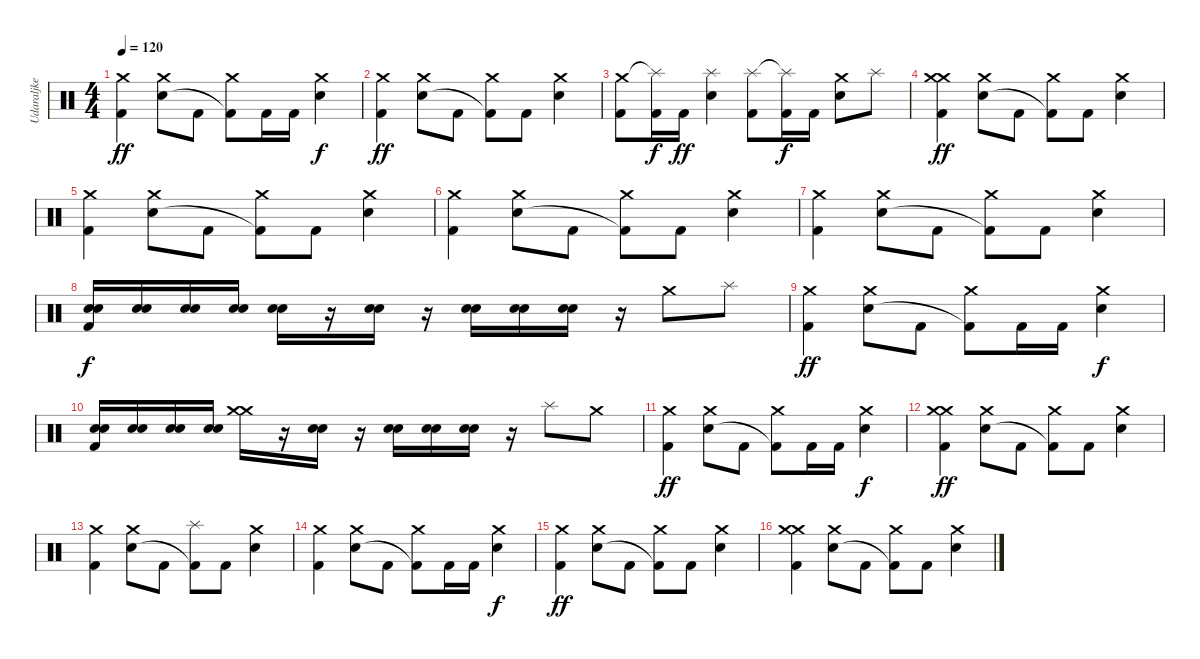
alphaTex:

\track ("Udaraljke" "Udaraljke") {instrument percussion}
\staff {score}
\articulation defaults
\ts (4 4)
\tempo 120
\clef neutral
\ks c
("Crash medium (hit)" "Kick (hit) 2").4{dy ff} ("Crash medium (hit)" "Electric Snare (hit)").8 "Kick (hit) 2".8 ("Crash medium (hit)" "Kick (hit) 2"{t}).8 "Kick (hit) 2".16 "Kick (hit) 2".16 ("Crash medium (hit)" "Electric Snare (hit)").4{dy f} |
("Crash medium (hit)" "Kick (hit) 2").4{dy ff} ("Crash medium (hit)" "Electric Snare (hit)").8 "Kick (hit) 2".8 ("Crash medium (hit)" "Kick (hit) 2"{t}).8 "Kick (hit) 2".8 ("Crash medium (hit)" "Electric Snare (hit)").4 |
("Crash medium (hit)" "Kick (hit) 2").8 ("Splash (hit)"{t} "Kick (hit) 2").16{dy f} "Kick (hit) 2".16{dy ff} ("Splash (hit)" "Electric Snare (hit)").4 ("Splash (hit)" "Kick (hit) 2").8 ("Splash (hit)"{t} "Kick (hit) 2").16{dy f} "Kick (hit) 2".16 ("Crash medium (hit)" "Electric Snare (hit)").8 "Splash (hit)".8 |
("Crash medium (hit)" "Crash medium (hit)" "Kick (hit) 2").4{dy ff} ("Crash medium (hit)" "Electric Snare (hit)").8 "Kick (hit) 2".8 ("Crash medium (hit)" "Kick (hit) 2"{t}).8 "Kick (hit) 2".8 ("Crash medium (hit)" "Electric Snare (hit)").4 |
("Crash medium (hit)" "Kick (hit) 2").4 ("Crash medium (hit)" "Electric Snare (hit)").8 "Kick (hit) 2".8 ("Crash medium (hit)" "Kick (hit) 2"{t}).8 "Kick (hit) 2".8 ("Crash medium (hit)" "Electric Snare (hit)").4 |
("Crash medium (hit)" "Kick (hit) 2").4 ("Crash medium (hit)" "Electric Snare (hit)").8 "Kick (hit) 2".8 ("Crash medium (hit)" "Kick (hit) 2"{t}).8 "Kick (hit) 2".8 ("Crash medium (hit)" "Electric Snare (hit)").4 |
("Crash medium (hit)" "Kick (hit) 2").4 ("Crash medium (hit)" "Electric Snare (hit)").8 "Kick (hit) 2".8 ("Crash medium (hit)" "Kick (hit) 2"{t}).8 "Kick (hit) 2".8 ("Crash medium (hit)" "Electric Snare (hit)").4 |
("Electric Snare (hit)" "Electric Snare (hit)" "Kick (hit) 2").16{dy f} ("Electric Snare (hit)" "Electric Snare (hit)").16 ("Electric Snare (hit)" "Electric Snare (hit)").16 ("Electric Snare (hit)" "Electric Snare (hit)").16 ("Electric Snare (hit)" "Electric Snare (hit)").16 r.16 ("Electric Snare (hit)" "Electric Snare (hit)").16 r.16 ("Electric Snare (hit)" "Electric Snare (hit)").16 ("Electric Snare (hit)" "Electric Snare (hit)").16 ("Electric Snare (hit)" "Electric Snare (hit)").16 r.16 "Crash medium (hit)".8 "Splash (hit)".8 |
("Crash medium (hit)" "Kick (hit) 2").4{dy ff} ("Crash medium (hit)" "Electric Snare (hit)").8 "Kick (hit) 2".8 ("Crash medium (hit)" "Kick (hit) 2"{t}).8 "Kick (hit) 2".16 "Kick (hit) 2".16 ("Crash medium (hit)" "Electric Snare (hit)").4{dy f} |
("Electric Snare (hit)" "Electric Snare (hit)" "Kick (hit) 2").16 ("Electric Snare (hit)" "Electric Snare (hit)").16 ("Electric Snare (hit)" "Electric Snare (hit)").16 ("Electric Snare (hit)" "Electric Snare (hit)").16 ("Crash medium (hit)" "Crash medium (hit)").16 r.16 ("Electric Snare (hit)" "Electric Snare (hit)").16 r.16 ("Electric Snare (hit)" "Electric Snare (hit)").16 ("Electric Snare (hit)" "Electric Snare (hit)").16 ("Electric Snare (hit)" "Electric Snare (hit)").16 r.16 "Splash (hit)".8 "Crash medium (hit)".8 |
("Crash medium (hit)" "Kick (hit) 2").4{dy ff} ("Crash medium (hit)" "Electric Snare (hit)").8 "Kick (hit) 2".8 ("Crash medium (hit)" "Kick (hit) 2"{t}).8 "Kick (hit) 2".16 "Kick (hit) 2".16 ("Crash medium (hit)" "Electric Snare (hit)").4{dy f} |
("Crash medium (hit)" "Crash medium (hit)" "Kick (hit) 2").4{dy ff} ("Crash medium (hit)" "Electric Snare (hit)").8 "Kick (hit) 2".8 ("Crash medium (hit)" "Kick (hit) 2"{t}).8 "Kick (hit) 2".8 ("Crash medium (hit)" "Electric Snare (hit)").4 |
("Crash medium (hit)" "Kick (hit) 2").4 ("Crash medium (hit)" "Electric Snare (hit)").8 "Kick (hit) 2".8 ("Splash (hit)" "Kick (hit) 2"{t}).8 "Kick (hit) 2".8 ("Crash medium (hit)" "Electric Snare (hit)").4 |
("Crash medium (hit)" "Kick (hit) 2").4 ("Crash medium (hit)" "Electric Snare (hit)").8 "Kick (hit) 2".8 ("Crash medium (hit)" "Kick (hit) 2"{t}).8 "Kick (hit) 2".16 "Kick (hit) 2".16 ("Crash medium (hit)" "Electric Snare (hit)").4{dy f} |
("Crash medium (hit)" "Kick (hit) 2").4{dy ff} ("Crash medium (hit)" "Electric Snare (hit)").8 "Kick (hit) 2".8 ("Crash medium (hit)" "Kick (hit) 2"{t}).8 "Kick (hit) 2".8 ("Crash medium (hit)" "Electric Snare (hit)").4 |
("Crash medium (hit)" "Crash medium (hit)" "Kick (hit) 2").4 ("Crash medium (hit)" "Electric Snare (hit)").8 "Kick (hit) 2".8 ("Crash medium (hit)" "Kick (hit) 2"{t}).8 "Kick (hit) 2".8 ("Crash medium (hit)" "Electric Snare (hit)").4
